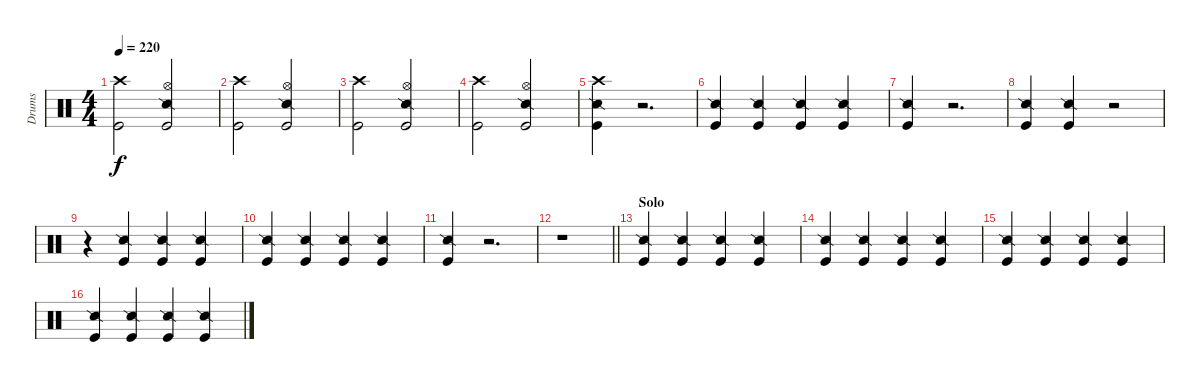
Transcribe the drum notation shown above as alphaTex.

\track ("Drums" "Drums") {instrument percussion}
\staff {score}
\articulation defaults
\ts (4 4)
\tempo 220
\clef neutral
\ks c
("Crash high (hit)" "Kick (hit)").2{dy f} ("Hi-Hat (open)" "Snare (side stick) 2" "Kick (hit)").2 |
("Crash high (hit)" "Kick (hit)").2 ("Hi-Hat (open)" "Snare (side stick) 2" "Kick (hit)").2 |
("Crash high (hit)" "Kick (hit)").2 ("Hi-Hat (open)" "Snare (side stick) 2" "Kick (hit)").2 |
("Crash high (hit)" "Kick (hit)").2 ("Hi-Hat (open)" "Snare (side stick) 2" "Kick (hit)").2 |
("Crash high (hit)" "Snare (side stick) 2" "Kick (hit)").4 r.2{d} |
("Snare (side stick) 2" "Kick (hit)").4 ("Snare (side stick) 2" "Kick (hit)").4 ("Kick (hit)" "Snare (side stick) 2").4 ("Kick (hit)" "Snare (side stick) 2").4 |
("Snare (side stick) 2" "Kick (hit)").4 r.2{d} |
("Snare (side stick) 2" "Kick (hit)").4 ("Snare (side stick) 2" "Kick (hit)").4 r.2 |
r.4 ("Snare (side stick) 2" "Kick (hit)").4 ("Snare (side stick) 2" "Kick (hit)").4 ("Kick (hit)" "Snare (side stick) 2").4 |
("Kick (hit)" "Snare (side stick) 2").4 ("Kick (hit)" "Snare (side stick) 2").4 ("Kick (hit)" "Snare (side stick) 2").4 ("Kick (hit)" "Snare (side stick) 2").4 |
("Kick (hit)" "Snare (side stick) 2").4 r.2{d} |
\barLineRight lightlight
r.1 |
\section ("" "Solo")
("Snare (side stick) 2" "Kick (hit)").4 ("Snare (side stick) 2" "Kick (hit)").4 ("Snare (side stick) 2" "Kick (hit)").4 ("Snare (side stick) 2" "Kick (hit)").4 |
("Snare (side stick) 2" "Kick (hit)").4 ("Snare (side stick) 2" "Kick (hit)").4 ("Snare (side stick) 2" "Kick (hit)").4 ("Snare (side stick) 2" "Kick (hit)").4 |
("Snare (side stick) 2" "Kick (hit)").4 ("Snare (side stick) 2" "Kick (hit)").4 ("Snare (side stick) 2" "Kick (hit)").4 ("Snare (side stick) 2" "Kick (hit)").4 |
("Snare (side stick) 2" "Kick (hit)").4 ("Snare (side stick) 2" "Kick (hit)").4 ("Snare (side stick) 2" "Kick (hit)").4 ("Snare (side stick) 2" "Kick (hit)").4
